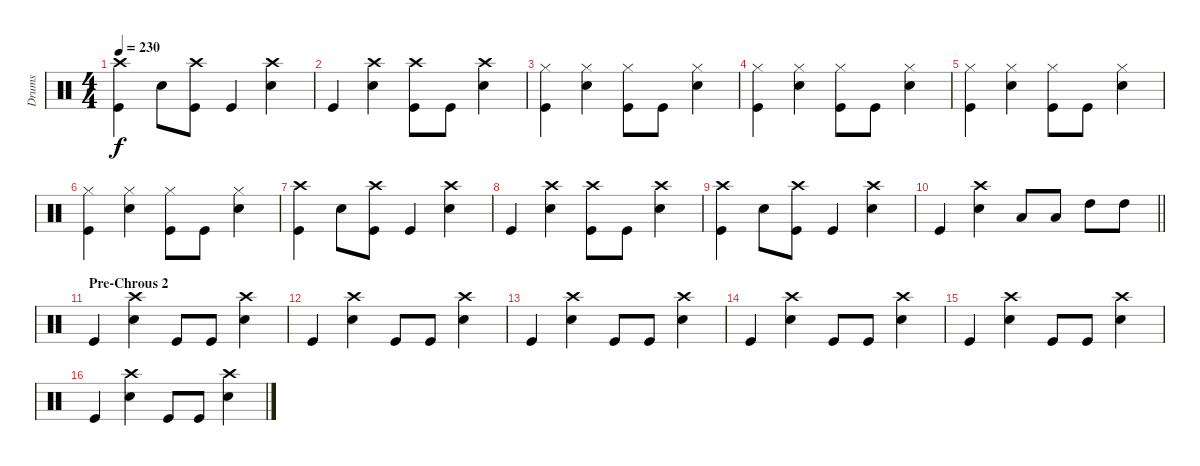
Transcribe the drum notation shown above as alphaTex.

\track ("Drums" "Drums") {instrument percussion}
\staff {score}
\articulation defaults
\ts (4 4)
\tempo 230
\clef neutral
\ks c
("Crash high (hit)" "Kick (hit)").4{dy f} "Snare (hit) 2".8 ("Crash high (hit)" "Kick (hit)").8 "Kick (hit)".4 ("Crash high (hit)" "Snare (hit) 2").4 |
"Kick (hit)".4 ("Crash high (hit)" "Snare (hit) 2").4 ("Crash high (hit)" "Kick (hit)").8 "Kick (hit)".8 ("Crash high (hit)" "Snare (hit) 2").4 |
("Hi-Hat (closed)" "Kick (hit)").4 ("Hi-Hat (closed)" "Snare (hit) 2").4 ("Hi-Hat (closed)" "Kick (hit)").8 "Kick (hit)".8 ("Hi-Hat (closed)" "Snare (hit) 2").4 |
("Hi-Hat (closed)" "Kick (hit)").4 ("Hi-Hat (closed)" "Snare (hit) 2").4 ("Hi-Hat (closed)" "Kick (hit)").8 "Kick (hit)".8 ("Hi-Hat (closed)" "Snare (hit) 2").4 |
("Hi-Hat (closed)" "Kick (hit)").4 ("Hi-Hat (closed)" "Snare (hit) 2").4 ("Hi-Hat (closed)" "Kick (hit)").8 "Kick (hit)".8 ("Hi-Hat (closed)" "Snare (hit) 2").4 |
("Hi-Hat (closed)" "Kick (hit)").4 ("Hi-Hat (closed)" "Snare (hit) 2").4 ("Hi-Hat (closed)" "Kick (hit)").8 "Kick (hit)".8 ("Hi-Hat (closed)" "Snare (hit) 2").4 |
("Crash high (hit)" "Kick (hit)").4 "Snare (hit) 2".8 ("Crash high (hit)" "Kick (hit)").8 "Kick (hit)".4 ("Crash high (hit)" "Snare (hit) 2").4 |
"Kick (hit)".4 ("Crash high (hit)" "Snare (hit) 2").4 ("Crash high (hit)" "Kick (hit)").8 "Kick (hit)".8 ("Crash high (hit)" "Snare (hit) 2").4 |
("Crash high (hit)" "Kick (hit)").4 "Snare (hit) 2".8 ("Crash high (hit)" "Kick (hit)").8 "Kick (hit)".4 ("Crash high (hit)" "Snare (hit) 2").4 |
\barLineRight lightlight "Kick (hit)".4
("Crash high (hit)" "Snare (hit) 2").4 "Low Tom (hit)".8 "Low Tom (hit)".8 "High Tom (hit)".8 "High Tom (hit)".8 |
\section ("" "Pre-Chrous 2")
"Kick (hit)".4 ("Crash high (hit)" "Snare (hit) 2").4 "Kick (hit)".8 "Kick (hit)".8 ("Crash high (hit)" "Snare (hit) 2").4 |
"Kick (hit)".4 ("Crash high (hit)" "Snare (hit) 2").4 "Kick (hit)".8 "Kick (hit)".8 ("Crash high (hit)" "Snare (hit) 2").4 |
"Kick (hit)".4 ("Crash high (hit)" "Snare (hit) 2").4 "Kick (hit)".8 "Kick (hit)".8 ("Crash high (hit)" "Snare (hit) 2").4 |
"Kick (hit)".4 ("Crash high (hit)" "Snare (hit) 2").4 "Kick (hit)".8 "Kick (hit)".8 ("Crash high (hit)" "Snare (hit) 2").4 |
"Kick (hit)".4 ("Crash high (hit)" "Snare (hit) 2").4 "Kick (hit)".8 "Kick (hit)".8 ("Crash high (hit)" "Snare (hit) 2").4 |
"Kick (hit)".4 ("Crash high (hit)" "Snare (hit) 2").4 "Kick (hit)".8 "Kick (hit)".8 ("Crash high (hit)" "Snare (hit) 2").4
